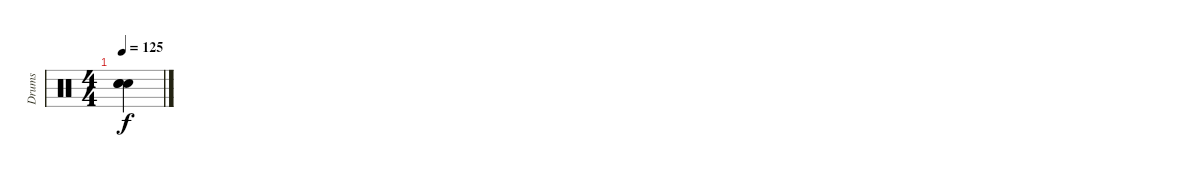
\track ("Drums" "Drums") {instrument percussion}
\staff {score}
\articulation defaults
\ts (4 4)
\tempo 125
\clef neutral
\ks c
("Snare (hit)"{t} "Snare (hit)"{t} "Snare (hit)"{t}).4{dy f}
